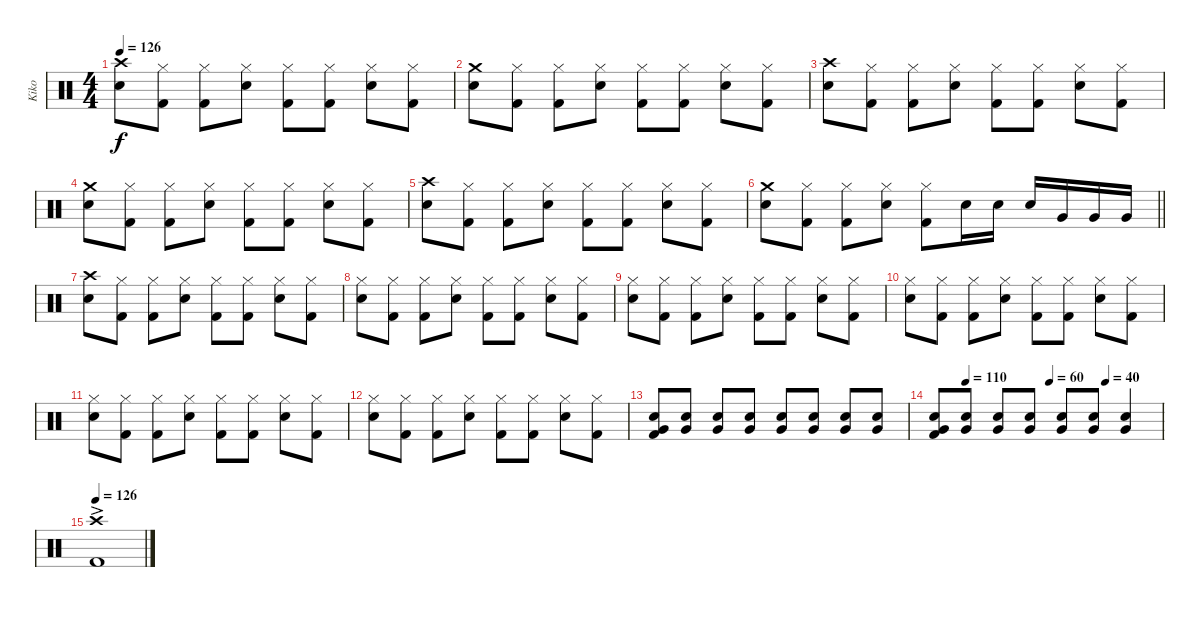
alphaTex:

\track ("Kiko" "Kiko") {instrument percussion}
\staff {score}
\articulation defaults
\ts (4 4)
\tempo 126
\clef neutral
\ks c
("Crash high (hit)" "Electric Snare (hit)").8{dy f} ("Hi-Hat (closed)" "Kick (hit) 2").8 ("Hi-Hat (closed)" "Kick (hit) 2").8 ("Hi-Hat (closed)" "Electric Snare (hit)").8 ("Hi-Hat (closed)" "Kick (hit) 2").8 ("Hi-Hat (closed)" "Kick (hit) 2").8 ("Hi-Hat (closed)" "Electric Snare (hit)").8 ("Hi-Hat (closed)" "Kick (hit) 2").8 |
("Crash medium (hit)" "Electric Snare (hit)").8 ("Hi-Hat (closed)" "Kick (hit) 2").8 ("Hi-Hat (closed)" "Kick (hit) 2").8 ("Hi-Hat (closed)" "Electric Snare (hit)").8 ("Hi-Hat (closed)" "Kick (hit) 2").8 ("Hi-Hat (closed)" "Kick (hit) 2").8 ("Hi-Hat (closed)" "Electric Snare (hit)").8 ("Hi-Hat (closed)" "Kick (hit) 2").8 |
("Crash high (hit)" "Electric Snare (hit)").8 ("Hi-Hat (closed)" "Kick (hit) 2").8 ("Hi-Hat (closed)" "Kick (hit) 2").8 ("Hi-Hat (closed)" "Electric Snare (hit)").8 ("Hi-Hat (closed)" "Kick (hit) 2").8 ("Hi-Hat (closed)" "Kick (hit) 2").8 ("Hi-Hat (closed)" "Electric Snare (hit)").8 ("Hi-Hat (closed)" "Kick (hit) 2").8 |
("Crash medium (hit)" "Electric Snare (hit)").8 ("Hi-Hat (closed)" "Kick (hit) 2").8 ("Hi-Hat (closed)" "Kick (hit) 2").8 ("Hi-Hat (closed)" "Electric Snare (hit)").8 ("Hi-Hat (closed)" "Kick (hit) 2").8 ("Hi-Hat (closed)" "Kick (hit) 2").8 ("Hi-Hat (closed)" "Electric Snare (hit)").8 ("Hi-Hat (closed)" "Kick (hit) 2").8 |
("Crash high (hit)" "Electric Snare (hit)").8 ("Hi-Hat (closed)" "Kick (hit) 2").8 ("Hi-Hat (closed)" "Kick (hit) 2").8 ("Hi-Hat (closed)" "Electric Snare (hit)").8 ("Hi-Hat (closed)" "Kick (hit) 2").8 ("Hi-Hat (closed)" "Kick (hit) 2").8 ("Hi-Hat (closed)" "Electric Snare (hit)").8 ("Hi-Hat (closed)" "Kick (hit) 2").8 |
\barLineRight lightlight
("Crash medium (hit)" "Electric Snare (hit)").8 ("Hi-Hat (closed)" "Kick (hit) 2").8 ("Hi-Hat (closed)" "Kick (hit) 2").8 ("Hi-Hat (closed)" "Electric Snare (hit)").8 ("Hi-Hat (closed)" "Kick (hit) 2").8 "Electric Snare (hit)".16 "Electric Snare (hit)".16 "Electric Snare (hit)".16 "Very Low Tom (hit)".16 "Very Low Tom (hit)".16 "Very Low Tom (hit)".16 |
("Crash high (hit)" "Electric Snare (hit)").8 ("Hi-Hat (closed)" "Kick (hit) 2").8 ("Hi-Hat (closed)" "Kick (hit) 2").8 ("Hi-Hat (closed)" "Electric Snare (hit)").8 ("Hi-Hat (closed)" "Kick (hit) 2").8 ("Hi-Hat (closed)" "Kick (hit) 2").8 ("Hi-Hat (closed)" "Electric Snare (hit)").8 ("Hi-Hat (closed)" "Kick (hit) 2").8 |
("Hi-Hat (closed)" "Electric Snare (hit)").8 ("Hi-Hat (closed)" "Kick (hit) 2").8 ("Hi-Hat (closed)" "Kick (hit) 2").8 ("Hi-Hat (closed)" "Electric Snare (hit)").8 ("Hi-Hat (closed)" "Kick (hit) 2").8 ("Hi-Hat (closed)" "Kick (hit) 2").8 ("Hi-Hat (closed)" "Electric Snare (hit)").8 ("Hi-Hat (closed)" "Kick (hit) 2").8 |
("Hi-Hat (closed)" "Electric Snare (hit)").8 ("Hi-Hat (closed)" "Kick (hit) 2").8 ("Hi-Hat (closed)" "Kick (hit) 2").8 ("Hi-Hat (closed)" "Electric Snare (hit)").8 ("Hi-Hat (closed)" "Kick (hit) 2").8 ("Hi-Hat (closed)" "Kick (hit) 2").8 ("Hi-Hat (closed)" "Electric Snare (hit)").8 ("Hi-Hat (closed)" "Kick (hit) 2").8 |
("Hi-Hat (closed)" "Electric Snare (hit)").8 ("Hi-Hat (closed)" "Kick (hit) 2").8 ("Hi-Hat (closed)" "Kick (hit) 2").8 ("Hi-Hat (closed)" "Electric Snare (hit)").8 ("Hi-Hat (closed)" "Kick (hit) 2").8 ("Hi-Hat (closed)" "Kick (hit) 2").8 ("Hi-Hat (closed)" "Electric Snare (hit)").8 ("Hi-Hat (closed)" "Kick (hit) 2").8 |
("Hi-Hat (closed)" "Electric Snare (hit)").8 ("Hi-Hat (closed)" "Kick (hit) 2").8 ("Hi-Hat (closed)" "Kick (hit) 2").8 ("Hi-Hat (closed)" "Electric Snare (hit)").8 ("Hi-Hat (closed)" "Kick (hit) 2").8 ("Hi-Hat (closed)" "Kick (hit) 2").8 ("Hi-Hat (closed)" "Electric Snare (hit)").8 ("Hi-Hat (closed)" "Kick (hit) 2").8 |
("Hi-Hat (closed)" "Electric Snare (hit)").8 ("Hi-Hat (closed)" "Kick (hit) 2").8 ("Hi-Hat (closed)" "Kick (hit) 2").8 ("Hi-Hat (closed)" "Electric Snare (hit)").8 ("Hi-Hat (closed)" "Kick (hit) 2").8 ("Hi-Hat (closed)" "Kick (hit) 2").8 ("Hi-Hat (closed)" "Electric Snare (hit)").8 ("Hi-Hat (closed)" "Kick (hit) 2").8 |
("Very Low Tom (hit)" "Electric Snare (hit)" "Kick (hit) 2").8 ("Very Low Tom (hit)" "Electric Snare (hit)").8 ("Very Low Tom (hit)" "Electric Snare (hit)").8 ("Very Low Tom (hit)" "Electric Snare (hit)").8 ("Very Low Tom (hit)" "Electric Snare (hit)").8 ("Very Low Tom (hit)" "Electric Snare (hit)").8 ("Very Low Tom (hit)" "Electric Snare (hit)").8 ("Very Low Tom (hit)" "Electric Snare (hit)").8 |
\tempo (110 0.125)
\tempo (60 0.5)
\tempo (40 0.75)
("Very Low Tom (hit)" "Electric Snare (hit)" "Kick (hit) 2").8 ("Very Low Tom (hit)" "Electric Snare (hit)").8 ("Very Low Tom (hit)" "Electric Snare (hit)").8 ("Very Low Tom (hit)" "Electric Snare (hit)").8 ("Very Low Tom (hit)" "Electric Snare (hit)").8 ("Very Low Tom (hit)" "Electric Snare (hit)").8 ("Very Low Tom (hit)" "Electric Snare (hit)").4 |
\tempo 126
("Crash high (hit)"{ac} "Kick (hit) 2").1
